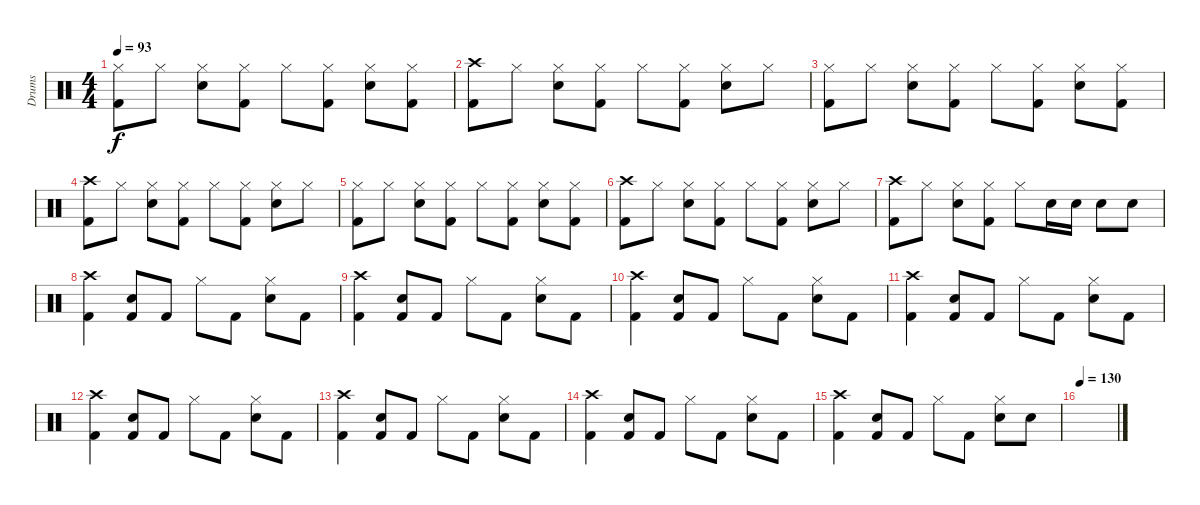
\track ("Drums" "Drums") {instrument percussion}
\staff {score}
\articulation defaults
\ts (4 4)
\tempo 93
\clef neutral
\ks c
("Hi-Hat (closed)" "Kick (hit) 2").8{dy f} "Hi-Hat (closed)".8 ("Hi-Hat (closed)" "Snare (hit) 2").8 ("Hi-Hat (closed)" "Kick (hit) 2").8 "Hi-Hat (closed)".8 ("Hi-Hat (closed)" "Kick (hit) 2").8 ("Hi-Hat (closed)" "Snare (hit) 2").8 ("Hi-Hat (closed)" "Kick (hit) 2").8 |
("Crash high (hit)" "Kick (hit) 2").8 "Hi-Hat (closed)".8 ("Hi-Hat (closed)" "Snare (hit) 2").8 ("Hi-Hat (closed)" "Kick (hit) 2").8 "Hi-Hat (closed)".8 ("Hi-Hat (closed)" "Kick (hit) 2").8 ("Hi-Hat (closed)" "Snare (hit) 2").8 "Hi-Hat (closed)".8 |
("Hi-Hat (closed)" "Kick (hit) 2").8 "Hi-Hat (closed)".8 ("Hi-Hat (closed)" "Snare (hit) 2").8 ("Hi-Hat (closed)" "Kick (hit) 2").8 "Hi-Hat (closed)".8 ("Hi-Hat (closed)" "Kick (hit) 2").8 ("Hi-Hat (closed)" "Snare (hit) 2").8 ("Hi-Hat (closed)" "Kick (hit) 2").8 |
("Crash high (hit)" "Kick (hit) 2").8 "Hi-Hat (closed)".8 ("Hi-Hat (closed)" "Snare (hit) 2").8 ("Hi-Hat (closed)" "Kick (hit) 2").8 "Hi-Hat (closed)".8 ("Hi-Hat (closed)" "Kick (hit) 2").8 ("Hi-Hat (closed)" "Snare (hit) 2").8 "Hi-Hat (closed)".8 |
("Hi-Hat (closed)" "Kick (hit) 2").8 "Hi-Hat (closed)".8 ("Hi-Hat (closed)" "Snare (hit) 2").8 ("Hi-Hat (closed)" "Kick (hit) 2").8 "Hi-Hat (closed)".8 ("Hi-Hat (closed)" "Kick (hit) 2").8 ("Hi-Hat (closed)" "Snare (hit) 2").8 ("Hi-Hat (closed)" "Kick (hit) 2").8 |
("Crash high (hit)" "Kick (hit) 2").8 "Hi-Hat (closed)".8 ("Hi-Hat (closed)" "Snare (hit) 2").8 ("Hi-Hat (closed)" "Kick (hit) 2").8 "Hi-Hat (closed)".8 ("Hi-Hat (closed)" "Kick (hit) 2").8 ("Hi-Hat (closed)" "Snare (hit) 2").8 "Hi-Hat (closed)".8 |
("Crash high (hit)" "Kick (hit) 2").8 "Hi-Hat (closed)".8 ("Hi-Hat (closed)" "Snare (hit) 2").8 ("Hi-Hat (closed)" "Kick (hit) 2").8 "Hi-Hat (closed)".8 "Electric Snare (hit)".16 "Snare (hit) 2".16 "Electric Snare (hit)".8 "Snare (hit) 2".8 |
("Crash high (hit)" "Kick (hit) 2").4 ("Kick (hit) 2" "Snare (hit) 2").8 "Kick (hit) 2".8 "Hi-Hat (closed)".8 "Kick (hit) 2".8 ("Hi-Hat (closed)" "Snare (hit) 2").8 "Kick (hit) 2".8 |
("Crash high (hit)" "Kick (hit) 2").4 ("Kick (hit) 2" "Snare (hit) 2").8 "Kick (hit) 2".8 "Hi-Hat (closed)".8 "Kick (hit) 2".8 ("Hi-Hat (closed)" "Snare (hit) 2").8 "Kick (hit) 2".8 |
("Crash high (hit)" "Kick (hit) 2").4 ("Kick (hit) 2" "Snare (hit) 2").8 "Kick (hit) 2".8 "Hi-Hat (closed)".8 "Kick (hit) 2".8 ("Hi-Hat (closed)" "Snare (hit) 2").8 "Kick (hit) 2".8 |
("Crash high (hit)" "Kick (hit) 2").4 ("Kick (hit) 2" "Snare (hit) 2").8 "Kick (hit) 2".8 "Hi-Hat (closed)".8 "Kick (hit) 2".8 ("Hi-Hat (closed)" "Snare (hit) 2").8 "Kick (hit) 2".8 |
("Crash high (hit)" "Kick (hit) 2").4 ("Kick (hit) 2" "Snare (hit) 2").8 "Kick (hit) 2".8 "Hi-Hat (closed)".8 "Kick (hit) 2".8 ("Hi-Hat (closed)" "Snare (hit) 2").8 "Kick (hit) 2".8 |
("Crash high (hit)" "Kick (hit) 2").4 ("Kick (hit) 2" "Snare (hit) 2").8 "Kick (hit) 2".8 "Hi-Hat (closed)".8 "Kick (hit) 2".8 ("Hi-Hat (closed)" "Snare (hit) 2").8 "Kick (hit) 2".8 |
("Crash high (hit)" "Kick (hit) 2").4 ("Kick (hit) 2" "Snare (hit) 2").8 "Kick (hit) 2".8 "Hi-Hat (closed)".8 "Kick (hit) 2".8 ("Hi-Hat (closed)" "Snare (hit) 2").8 "Kick (hit) 2".8 |
("Crash high (hit)" "Kick (hit) 2").4 ("Kick (hit) 2" "Snare (hit) 2").8 "Kick (hit) 2".8 "Hi-Hat (closed)".8 "Kick (hit) 2".8 ("Hi-Hat (closed)" "Snare (hit) 2").8 "Snare (hit) 2".8 |
\tempo 130
